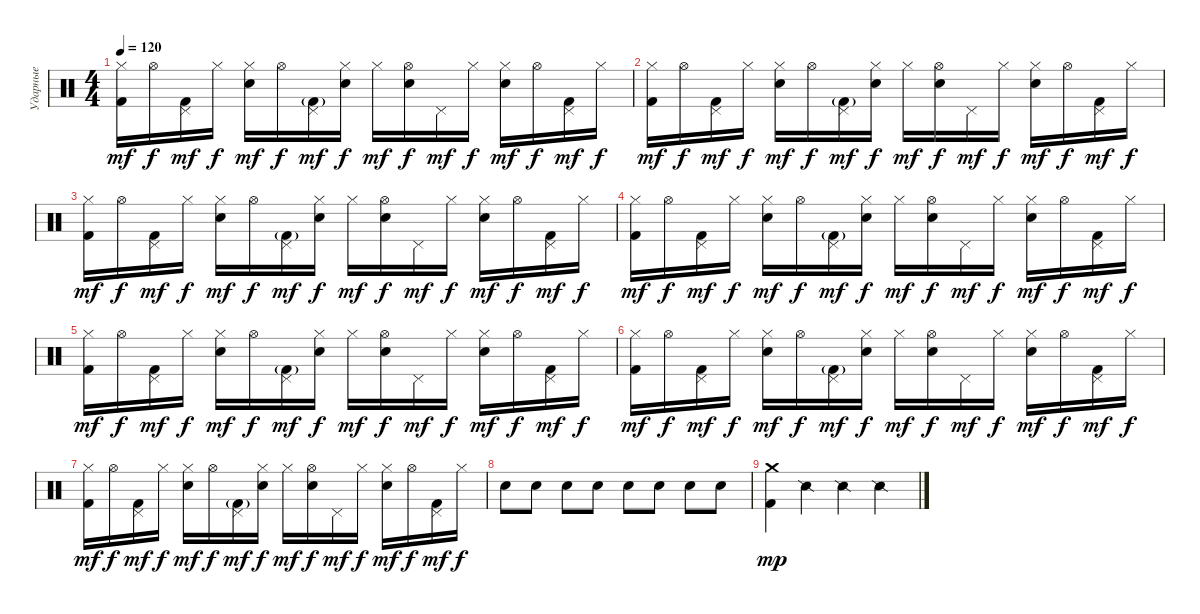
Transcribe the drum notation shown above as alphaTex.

\track ("Ударные" "Ударные") {instrument percussion}
\staff {score}
\articulation defaults
\ts (4 4)
\tempo 120
\clef neutral
\ks c
("Kick (hit) 2" "Hi-Hat (closed)").16{dy mf} "Hi-Hat (open)".16{dy f} ("Kick (hit) 2" "Pedal Hi-Hat (hit)").16{dy mf} "Hi-Hat (closed)".16{dy f} ("Snare (hit) 2" "Hi-Hat (closed)").16{dy mf} "Hi-Hat (open)".16{dy f} ("Kick (hit) 2"{g} "Pedal Hi-Hat (hit)").16{dy mf} ("Snare (hit) 2" "Hi-Hat (closed)").16{dy f} "Hi-Hat (closed)".16{dy mf} ("Snare (hit) 2" "Hi-Hat (open)").16{dy f} "Pedal Hi-Hat (hit)".16{dy mf} "Hi-Hat (closed)".16{dy f} ("Snare (hit) 2" "Hi-Hat (closed)").16{dy mf} "Hi-Hat (open)".16{dy f} ("Kick (hit) 2" "Pedal Hi-Hat (hit)").16{dy mf} "Hi-Hat (closed)".16{dy f} |
("Kick (hit) 2" "Hi-Hat (closed)").16{dy mf} "Hi-Hat (open)".16{dy f} ("Kick (hit) 2" "Pedal Hi-Hat (hit)").16{dy mf} "Hi-Hat (closed)".16{dy f} ("Snare (hit) 2" "Hi-Hat (closed)").16{dy mf} "Hi-Hat (open)".16{dy f} ("Kick (hit) 2"{g} "Pedal Hi-Hat (hit)").16{dy mf} ("Snare (hit) 2" "Hi-Hat (closed)").16{dy f} "Hi-Hat (closed)".16{dy mf} ("Snare (hit) 2" "Hi-Hat (open)").16{dy f} "Pedal Hi-Hat (hit)".16{dy mf} "Hi-Hat (closed)".16{dy f} ("Snare (hit) 2" "Hi-Hat (closed)").16{dy mf} "Hi-Hat (open)".16{dy f} ("Kick (hit) 2" "Pedal Hi-Hat (hit)").16{dy mf} "Hi-Hat (closed)".16{dy f} |
("Kick (hit) 2" "Hi-Hat (closed)").16{dy mf} "Hi-Hat (open)".16{dy f} ("Kick (hit) 2" "Pedal Hi-Hat (hit)").16{dy mf} "Hi-Hat (closed)".16{dy f} ("Snare (hit) 2" "Hi-Hat (closed)").16{dy mf} "Hi-Hat (open)".16{dy f} ("Kick (hit) 2"{g} "Pedal Hi-Hat (hit)").16{dy mf} ("Snare (hit) 2" "Hi-Hat (closed)").16{dy f} "Hi-Hat (closed)".16{dy mf} ("Snare (hit) 2" "Hi-Hat (open)").16{dy f} "Pedal Hi-Hat (hit)".16{dy mf} "Hi-Hat (closed)".16{dy f} ("Snare (hit) 2" "Hi-Hat (closed)").16{dy mf} "Hi-Hat (open)".16{dy f} ("Kick (hit) 2" "Pedal Hi-Hat (hit)").16{dy mf} "Hi-Hat (closed)".16{dy f} |
("Kick (hit) 2" "Hi-Hat (closed)").16{dy mf} "Hi-Hat (open)".16{dy f} ("Kick (hit) 2" "Pedal Hi-Hat (hit)").16{dy mf} "Hi-Hat (closed)".16{dy f} ("Snare (hit) 2" "Hi-Hat (closed)").16{dy mf} "Hi-Hat (open)".16{dy f} ("Kick (hit) 2"{g} "Pedal Hi-Hat (hit)").16{dy mf} ("Snare (hit) 2" "Hi-Hat (closed)").16{dy f} "Hi-Hat (closed)".16{dy mf} ("Snare (hit) 2" "Hi-Hat (open)").16{dy f} "Pedal Hi-Hat (hit)".16{dy mf} "Hi-Hat (closed)".16{dy f} ("Snare (hit) 2" "Hi-Hat (closed)").16{dy mf} "Hi-Hat (open)".16{dy f} ("Kick (hit) 2" "Pedal Hi-Hat (hit)").16{dy mf} "Hi-Hat (closed)".16{dy f} |
("Kick (hit) 2" "Hi-Hat (closed)").16{dy mf} "Hi-Hat (open)".16{dy f} ("Kick (hit) 2" "Pedal Hi-Hat (hit)").16{dy mf} "Hi-Hat (closed)".16{dy f} ("Snare (hit) 2" "Hi-Hat (closed)").16{dy mf} "Hi-Hat (open)".16{dy f} ("Kick (hit) 2"{g} "Pedal Hi-Hat (hit)").16{dy mf} ("Snare (hit) 2" "Hi-Hat (closed)").16{dy f} "Hi-Hat (closed)".16{dy mf} ("Snare (hit) 2" "Hi-Hat (open)").16{dy f} "Pedal Hi-Hat (hit)".16{dy mf} "Hi-Hat (closed)".16{dy f} ("Snare (hit) 2" "Hi-Hat (closed)").16{dy mf} "Hi-Hat (open)".16{dy f} ("Kick (hit) 2" "Pedal Hi-Hat (hit)").16{dy mf} "Hi-Hat (closed)".16{dy f} |
("Kick (hit) 2" "Hi-Hat (closed)").16{dy mf} "Hi-Hat (open)".16{dy f} ("Kick (hit) 2" "Pedal Hi-Hat (hit)").16{dy mf} "Hi-Hat (closed)".16{dy f} ("Snare (hit) 2" "Hi-Hat (closed)").16{dy mf} "Hi-Hat (open)".16{dy f} ("Kick (hit) 2"{g} "Pedal Hi-Hat (hit)").16{dy mf} ("Snare (hit) 2" "Hi-Hat (closed)").16{dy f} "Hi-Hat (closed)".16{dy mf} ("Snare (hit) 2" "Hi-Hat (open)").16{dy f} "Pedal Hi-Hat (hit)".16{dy mf} "Hi-Hat (closed)".16{dy f} ("Snare (hit) 2" "Hi-Hat (closed)").16{dy mf} "Hi-Hat (open)".16{dy f} ("Kick (hit) 2" "Pedal Hi-Hat (hit)").16{dy mf} "Hi-Hat (closed)".16{dy f} |
("Kick (hit) 2" "Hi-Hat (closed)").16{dy mf} "Hi-Hat (open)".16{dy f} ("Kick (hit) 2" "Pedal Hi-Hat (hit)").16{dy mf} "Hi-Hat (closed)".16{dy f} ("Snare (hit) 2" "Hi-Hat (closed)").16{dy mf} "Hi-Hat (open)".16{dy f} ("Kick (hit) 2"{g} "Pedal Hi-Hat (hit)").16{dy mf} ("Snare (hit) 2" "Hi-Hat (closed)").16{dy f} "Hi-Hat (closed)".16{dy mf} ("Snare (hit) 2" "Hi-Hat (open)").16{dy f} "Pedal Hi-Hat (hit)".16{dy mf} "Hi-Hat (closed)".16{dy f} ("Snare (hit) 2" "Hi-Hat (closed)").16{dy mf} "Hi-Hat (open)".16{dy f} ("Kick (hit) 2" "Pedal Hi-Hat (hit)").16{dy mf} "Hi-Hat (closed)".16{dy f} |
"Snare (hit) 2".8 "Snare (hit) 2".8 "Snare (hit) 2".8 "Snare (hit) 2".8 "Snare (hit) 2".8 "Snare (hit) 2".8 "Snare (hit) 2".8 "Snare (hit) 2".8 |
("Kick (hit) 2" "Crash medium (hit)").4{dy mp} "Snare (side stick) 2".4 "Snare (side stick) 2".4 "Snare (side stick) 2".4
